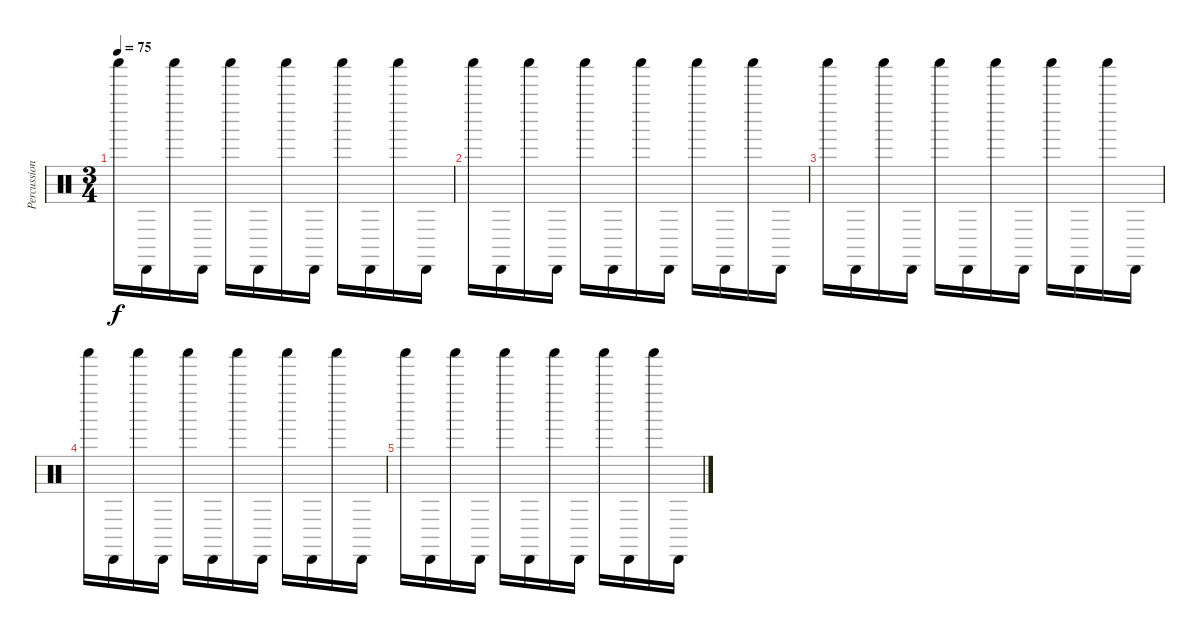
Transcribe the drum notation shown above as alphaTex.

\track ("Percussions" "Percussion") {instrument percussion}
\staff {score}
\articulation defaults
\ts (3 4)
\tempo 75
\clef neutral
\ks c "Shaker (hit)".16{dy f} "Cabasa (hit)".16 "Shaker (hit)".16 "Cabasa (hit)".16 "Shaker (hit)".16 "Cabasa (hit)".16 "Shaker (hit)".16 "Cabasa (hit)".16 "Shaker (hit)".16 "Cabasa (hit)".16 "Shaker (hit)".16 "Cabasa (hit)".16
|
"Shaker (hit)".16 "Cabasa (hit)".16 "Shaker (hit)".16 "Cabasa (hit)".16 "Shaker (hit)".16 "Cabasa (hit)".16 "Shaker (hit)".16 "Cabasa (hit)".16 "Shaker (hit)".16 "Cabasa (hit)".16 "Shaker (hit)".16 "Cabasa (hit)".16 |
"Shaker (hit)".16 "Cabasa (hit)".16 "Shaker (hit)".16 "Cabasa (hit)".16 "Shaker (hit)".16 "Cabasa (hit)".16 "Shaker (hit)".16 "Cabasa (hit)".16 "Shaker (hit)".16 "Cabasa (hit)".16 "Shaker (hit)".16 "Cabasa (hit)".16 |
"Shaker (hit)".16 "Cabasa (hit)".16 "Shaker (hit)".16 "Cabasa (hit)".16 "Shaker (hit)".16 "Cabasa (hit)".16 "Shaker (hit)".16 "Cabasa (hit)".16 "Shaker (hit)".16 "Cabasa (hit)".16 "Shaker (hit)".16 "Cabasa (hit)".16 |
"Shaker (hit)".16 "Cabasa (hit)".16 "Shaker (hit)".16 "Cabasa (hit)".16 "Shaker (hit)".16 "Cabasa (hit)".16 "Shaker (hit)".16 "Cabasa (hit)".16 "Shaker (hit)".16 "Cabasa (hit)".16 "Shaker (hit)".16 "Cabasa (hit)".16
